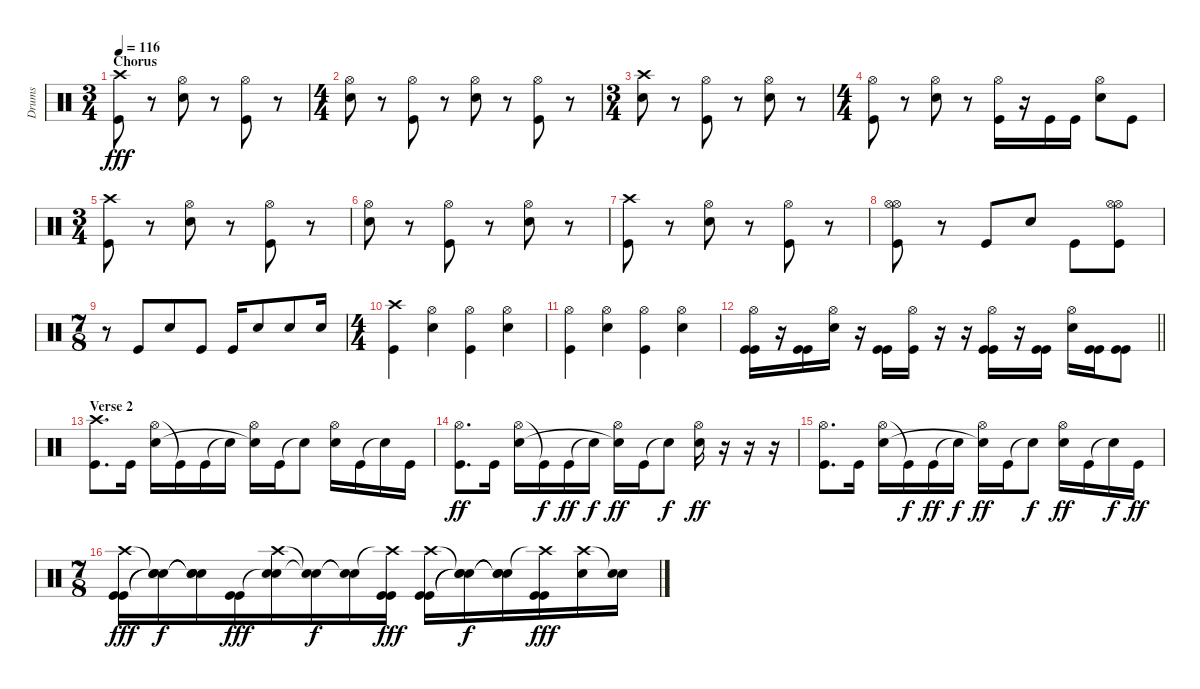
\track ("Drums" "Drums") {instrument percussion}
\staff {score}
\articulation defaults
\ts (3 4)
\section ("" "Chorus")
\tempo 116
\clef neutral
\ks c
("Crash high (hit)" "Kick (hit)").8{dy fff} r.8 ("Hi-Hat (open)" "Electric Snare (hit)").8 r.8 ("Hi-Hat (open)" "Kick (hit)").8 r.8 |
\ts (4 4)
("Hi-Hat (open)" "Electric Snare (hit)").8 r.8 ("Hi-Hat (open)" "Kick (hit)").8 r.8 ("Hi-Hat (open)" "Electric Snare (hit)").8 r.8 ("Hi-Hat (open)" "Kick (hit)").8 r.8 |
\ts (3 4)
("Crash high (hit)" "Electric Snare (hit)").8 r.8 ("Hi-Hat (open)" "Kick (hit)").8 r.8 ("Hi-Hat (open)" "Electric Snare (hit)").8 r.8 |
\ts (4 4)
("Hi-Hat (open)" "Kick (hit)").8 r.8 ("Hi-Hat (open)" "Electric Snare (hit)").8 r.8 ("Hi-Hat (open)" "Kick (hit)").16 r.16 "Kick (hit)".16 "Kick (hit)".16 ("Hi-Hat (open)" "Electric Snare (hit)").8 "Kick (hit)".8 |
\ts (3 4)
("Crash high (hit)" "Kick (hit)").8 r.8 ("Hi-Hat (open)" "Electric Snare (hit)").8 r.8 ("Hi-Hat (open)" "Kick (hit)").8 r.8 |
("Hi-Hat (open)" "Electric Snare (hit)").8 r.8 ("Hi-Hat (open)" "Kick (hit)").8 r.8 ("Hi-Hat (open)" "Electric Snare (hit)").8 r.8 |
("Crash high (hit)" "Kick (hit)").8 r.8 ("Hi-Hat (open)" "Electric Snare (hit)").8 r.8 ("Hi-Hat (open)" "Kick (hit)").8 r.8 |
("Hi-Hat (open)" "Hi-Hat (open)" "Kick (hit)").8 r.8 "Kick (hit)".8 "Electric Snare (hit)".8 "Kick (hit)".8 ("Hi-Hat (open)" "Hi-Hat (open)" "Kick (hit)").8 |
\ts (7 8)
r.8 "Kick (hit)".8 "Electric Snare (hit)".8 "Kick (hit)".8 "Kick (hit)".16 "Electric Snare (hit)".8 "Electric Snare (hit)".8 "Electric Snare (hit)".16 |
\ts (4 4)
("Crash high (hit)" "Kick (hit)").4 ("Hi-Hat (open)" "Electric Snare (hit)").4 ("Hi-Hat (open)" "Kick (hit)").4 ("Hi-Hat (open)" "Electric Snare (hit)").4 |
("Hi-Hat (open)" "Kick (hit)").4 ("Hi-Hat (open)" "Electric Snare (hit)").4 ("Hi-Hat (open)" "Kick (hit)").4 ("Hi-Hat (open)" "Electric Snare (hit)").4 |
\barLineRight lightlight
("Hi-Hat (open)" "Kick (hit)" "Kick (hit)").16 r.16 ("Kick (hit)" "Kick (hit)").16 ("Hi-Hat (open)" "Electric Snare (hit)").16 r.16 ("Kick (hit)" "Kick (hit)").16 ("Hi-Hat (open)" "Kick (hit)").16 r.16 r.16 ("Hi-Hat (open)" "Kick (hit)" "Kick (hit)").16 r.16 ("Kick (hit)" "Kick (hit)").16 ("Hi-Hat (open)" "Electric Snare (hit)").16 ("Kick (hit)" "Kick (hit)").16 ("Kick (hit)" "Kick (hit)").8 |
\section ("" "Verse 2")
("Crash high (hit)" "Kick (hit)").8{d} "Kick (hit)".16 ("Hi-Hat (open)" "Electric Snare (hit)").16 "Kick (hit)"{t}.16 "Kick (hit)".16 "Snare (hit)"{t}.16 ("Hi-Hat (open)" "Snare (hit)"{t}).16 "Kick (hit)".16 "Snare (hit)"{t}.8 ("Hi-Hat (open)" "Electric Snare (hit)").16 "Kick (hit)".16 "Snare (hit)"{t}.16 "Kick (hit)".16 |
("Hi-Hat (open)" "Kick (hit)").8{d dy ff} "Kick (hit)".16 ("Hi-Hat (open)" "Electric Snare (hit)").16 "Kick (hit)"{t}.16{dy f} "Kick (hit)".16{dy ff} "Snare (hit)"{t}.16{dy f} ("Hi-Hat (open)" "Snare (hit)"{t}).16{dy ff} "Kick (hit)".16 "Snare (hit)"{t}.8{dy f} ("Hi-Hat (open)" "Electric Snare (hit)").16{dy ff} r.16 r.16 r.16 |
("Hi-Hat (open)" "Kick (hit)").8{d} "Kick (hit)".16 ("Hi-Hat (open)" "Electric Snare (hit)").16 "Kick (hit)"{t}.16{dy f} "Kick (hit)".16{dy ff} "Snare (hit)"{t}.16{dy f} ("Hi-Hat (open)" "Snare (hit)"{t}).16{dy ff} "Kick (hit)".16 "Snare (hit)"{t}.8{dy f} ("Hi-Hat (open)" "Electric Snare (hit)").16{dy ff} "Kick (hit)".16 "Snare (hit)"{t}.16{dy f} "Kick (hit)".16{dy ff} |
\ts (7 8)
("Crash high (hit)" "Kick (hit)" "Kick (hit)").16{dy fff} ("Snare (hit)"{t} "Snare (hit)"{t} "Snare (hit)"{t}).16{dy f} ("Snare (hit)"{t} "Snare (hit)"{t} "Snare (hit)"{t}).16 ("Kick (hit)" "Kick (hit)").16{dy fff} ("Crash high (hit)" "Snare (hit)"{t} "Electric Snare (hit)").16 ("Snare (hit)"{t} "Snare (hit)"{t}).16{dy f} ("Snare (hit)"{t} "Snare (hit)"{t}).16 ("Crash high (hit)"{t} "Kick (hit)" "Kick (hit)").16{dy fff} ("Crash high (hit)" "Kick (hit)" "Kick (hit)").16 ("Snare (hit)"{t} "Snare (hit)"{t} "Snare (hit)"{t}).16{dy f} ("Snare (hit)"{t} "Snare (hit)"{t} "Snare (hit)"{t}).16 ("Crash high (hit)"{t} "Kick (hit)" "Kick (hit)").16{dy fff} ("Crash high (hit)" "Electric Snare (hit)").16 ("Snare (hit)"{t} "Electric Snare (hit)").16
